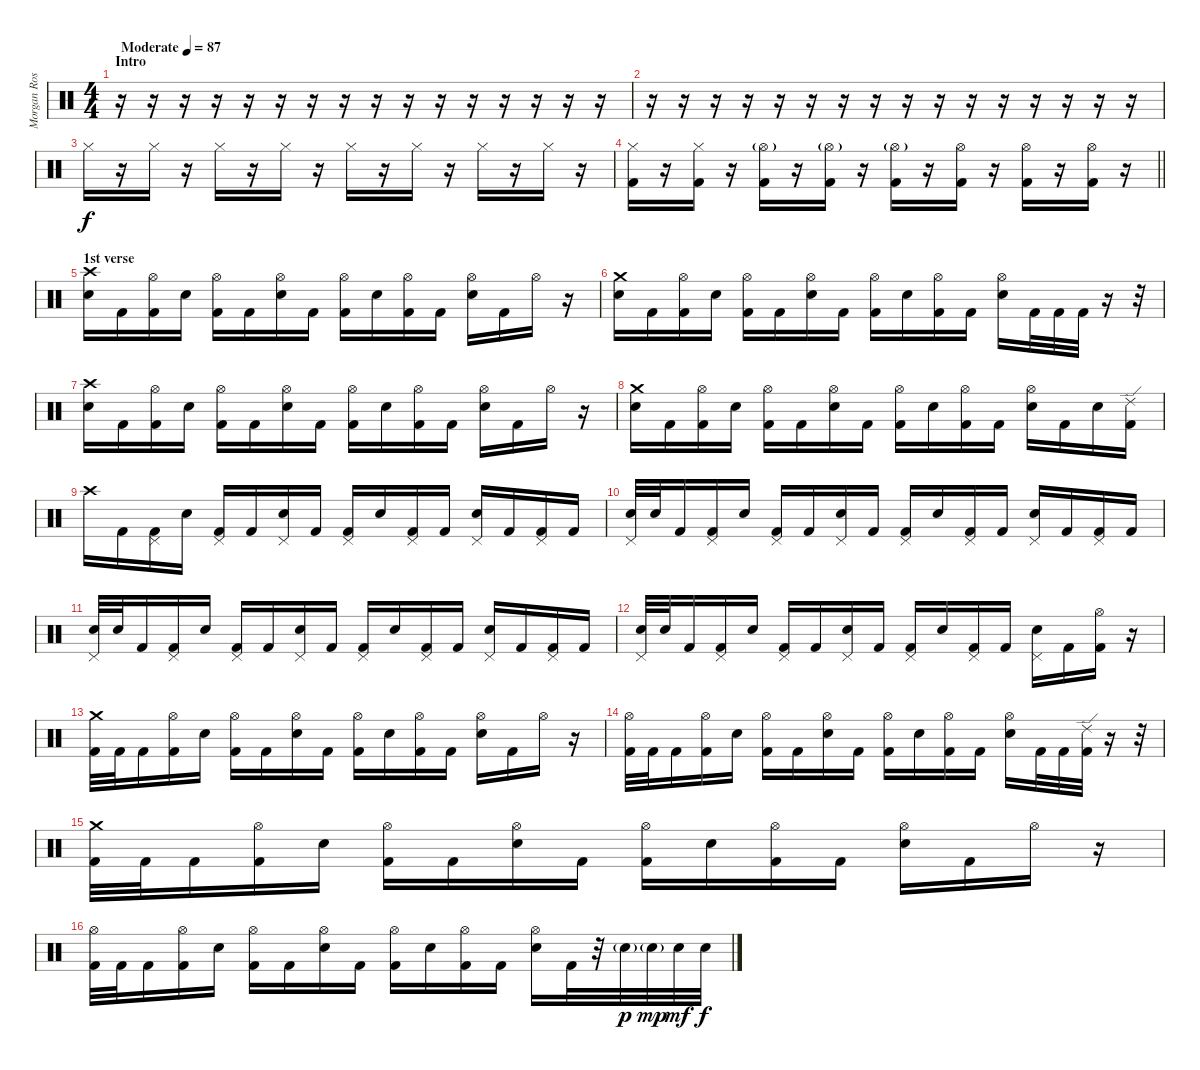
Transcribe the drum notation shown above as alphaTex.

\track ("Morgan Rose" "Morgan Ros") {instrument percussion}
\staff {score}
\articulation defaults
\ts (4 4)
\section ("" "Intro")
\tempo (87 "Moderate")
\clef neutral
\ks c
r.16{dy f} r.16 r.16 r.16 r.16 r.16 r.16 r.16 r.16 r.16 r.16 r.16 r.16 r.16 r.16 r.16 |
r.16 r.16 r.16 r.16 r.16 r.16 r.16 r.16 r.16 r.16 r.16 r.16 r.16 r.16 r.16 r.16 |
"Hi-Hat (closed)".16 r.16 "Hi-Hat (closed)".16 r.16 "Hi-Hat (closed)".16 r.16 "Hi-Hat (closed)".16 r.16 "Hi-Hat (closed)".16 r.16 "Hi-Hat (closed)".16 r.16 "Hi-Hat (closed)".16 r.16 "Hi-Hat (closed)".16 r.16 |
\barLineRight lightlight
("Hi-Hat (closed)" "Kick (hit) 2").16 r.16 ("Hi-Hat (closed)" "Kick (hit) 2").16 r.16 ("Hi-Hat (open)"{g} "Kick (hit) 2").16 r.16 ("Hi-Hat (open)"{g} "Kick (hit) 2").16 r.16 ("Hi-Hat (open)"{g} "Kick (hit) 2").16 r.16 ("Hi-Hat (open)" "Kick (hit) 2").16 r.16 ("Hi-Hat (open)" "Kick (hit) 2").16 r.16 ("Hi-Hat (open)" "Kick (hit) 2").16 r.16 |
\section ("" "1st verse")
("Crash high (hit)" "Snare (hit) 2").16 "Kick (hit) 2".16 ("Hi-Hat (open)" "Kick (hit) 2").16 "Snare (hit) 2".16 ("Hi-Hat (open)" "Kick (hit) 2").16 "Kick (hit) 2".16 ("Hi-Hat (open)" "Snare (hit) 2").16 "Kick (hit) 2".16 ("Hi-Hat (open)" "Kick (hit) 2").16 "Snare (hit) 2".16 ("Hi-Hat (open)" "Kick (hit) 2").16 "Kick (hit) 2".16 ("Hi-Hat (open)" "Snare (hit) 2").16 "Kick (hit) 2".16 "Hi-Hat (open)".16 r.16 |
("Crash medium (hit)" "Snare (hit) 2").16 "Kick (hit) 2".16 ("Hi-Hat (open)" "Kick (hit) 2").16 "Snare (hit) 2".16 ("Hi-Hat (open)" "Kick (hit) 2").16 "Kick (hit) 2".16 ("Hi-Hat (open)" "Snare (hit) 2").16 "Kick (hit) 2".16 ("Hi-Hat (open)" "Kick (hit) 2").16 "Snare (hit) 2".16 ("Hi-Hat (open)" "Kick (hit) 2").16 "Kick (hit) 2".16 ("Hi-Hat (open)" "Snare (hit) 2").16 "Kick (hit) 2".32 "Kick (hit) 2".32 "Kick (hit) 2".32 r.16 r.32 |
("Crash high (hit)" "Snare (hit) 2").16 "Kick (hit) 2".16 ("Hi-Hat (open)" "Kick (hit) 2").16 "Snare (hit) 2".16 ("Hi-Hat (open)" "Kick (hit) 2").16 "Kick (hit) 2".16 ("Hi-Hat (open)" "Snare (hit) 2").16 "Kick (hit) 2".16 ("Hi-Hat (open)" "Kick (hit) 2").16 "Snare (hit) 2".16 ("Hi-Hat (open)" "Kick (hit) 2").16 "Kick (hit) 2".16 ("Hi-Hat (open)" "Snare (hit) 2").16 "Kick (hit) 2".16 "Hi-Hat (open)".16 r.16 |
("Crash medium (hit)" "Snare (hit) 2").16 "Kick (hit) 2".16 ("Hi-Hat (open)" "Kick (hit) 2").16 "Snare (hit) 2".16 ("Hi-Hat (open)" "Kick (hit) 2").16 "Kick (hit) 2".16 ("Hi-Hat (open)" "Snare (hit) 2").16 "Kick (hit) 2".16 ("Hi-Hat (open)" "Kick (hit) 2").16 "Snare (hit) 2".16 ("Hi-Hat (open)" "Kick (hit) 2").16 "Kick (hit) 2".16 ("Hi-Hat (open)" "Snare (hit) 2").16 "Kick (hit) 2".16 "Snare (hit) 2".16 ("Ride (edge) 2" "Kick (hit) 2").16 |
"Crash high (hit)".16 "Kick (hit) 2".16 ("Pedal Hi-Hat (hit)" "Kick (hit) 2").16 "Snare (hit) 2".16 ("Pedal Hi-Hat (hit)" "Kick (hit) 2").16 "Kick (hit) 2".16 ("Pedal Hi-Hat (hit)" "Snare (hit) 2").16 "Kick (hit) 2".16 ("Pedal Hi-Hat (hit)" "Kick (hit) 2").16 "Snare (hit) 2".16 ("Pedal Hi-Hat (hit)" "Kick (hit) 2").16 "Kick (hit) 2".16 ("Pedal Hi-Hat (hit)" "Snare (hit) 2").16 "Kick (hit) 2".16 ("Pedal Hi-Hat (hit)" "Kick (hit) 2").16 "Kick (hit) 2".16 |
("Pedal Hi-Hat (hit)" "Snare (hit) 2").32 "Snare (hit) 2".32 "Kick (hit) 2".16 ("Pedal Hi-Hat (hit)" "Kick (hit) 2").16 "Snare (hit) 2".16 ("Pedal Hi-Hat (hit)" "Kick (hit) 2").16 "Kick (hit) 2".16 ("Pedal Hi-Hat (hit)" "Snare (hit) 2").16 "Kick (hit) 2".16 ("Pedal Hi-Hat (hit)" "Kick (hit) 2").16 "Snare (hit) 2".16 ("Pedal Hi-Hat (hit)" "Kick (hit) 2").16 "Kick (hit) 2".16 ("Pedal Hi-Hat (hit)" "Snare (hit) 2").16 "Kick (hit) 2".16 ("Pedal Hi-Hat (hit)" "Kick (hit) 2").16 "Kick (hit) 2".16 |
("Pedal Hi-Hat (hit)" "Snare (hit) 2").32 "Snare (hit) 2".32 "Kick (hit) 2".16 ("Pedal Hi-Hat (hit)" "Kick (hit) 2").16 "Snare (hit) 2".16 ("Pedal Hi-Hat (hit)" "Kick (hit) 2").16 "Kick (hit) 2".16 ("Pedal Hi-Hat (hit)" "Snare (hit) 2").16 "Kick (hit) 2".16 ("Pedal Hi-Hat (hit)" "Kick (hit) 2").16 "Snare (hit) 2".16 ("Pedal Hi-Hat (hit)" "Kick (hit) 2").16 "Kick (hit) 2".16 ("Pedal Hi-Hat (hit)" "Snare (hit) 2").16 "Kick (hit) 2".16 ("Pedal Hi-Hat (hit)" "Kick (hit) 2").16 "Kick (hit) 2".16 |
("Pedal Hi-Hat (hit)" "Snare (hit) 2").32 "Snare (hit) 2".32 "Kick (hit) 2".16 ("Pedal Hi-Hat (hit)" "Kick (hit) 2").16 "Snare (hit) 2".16 ("Pedal Hi-Hat (hit)" "Kick (hit) 2").16 "Kick (hit) 2".16 ("Pedal Hi-Hat (hit)" "Snare (hit) 2").16 "Kick (hit) 2".16 ("Pedal Hi-Hat (hit)" "Kick (hit) 2").16 "Snare (hit) 2".16 ("Pedal Hi-Hat (hit)" "Kick (hit) 2").16 "Kick (hit) 2".16 ("Pedal Hi-Hat (hit)" "Snare (hit) 2").16 "Kick (hit) 2".16 ("Hi-Hat (open)" "Kick (hit) 2").16 r.16 |
("Crash medium (hit)" "Kick (hit) 2").32 "Kick (hit) 2".32 "Kick (hit) 2".16 ("Hi-Hat (open)" "Kick (hit) 2").16 "Snare (hit) 2".16 ("Hi-Hat (open)" "Kick (hit) 2").16 "Kick (hit) 2".16 ("Hi-Hat (open)" "Snare (hit) 2").16 "Kick (hit) 2".16 ("Hi-Hat (open)" "Kick (hit) 2").16 "Snare (hit) 2".16 ("Hi-Hat (open)" "Kick (hit) 2").16 "Kick (hit) 2".16 ("Hi-Hat (open)" "Snare (hit) 2").16 "Kick (hit) 2".16 "Hi-Hat (open)".16 r.16 |
("Hi-Hat (open)" "Kick (hit) 2").32 "Kick (hit) 2".32 "Kick (hit) 2".16 ("Hi-Hat (open)" "Kick (hit) 2").16 "Snare (hit) 2".16 ("Hi-Hat (open)" "Kick (hit) 2").16 "Kick (hit) 2".16 ("Hi-Hat (open)" "Snare (hit) 2").16 "Kick (hit) 2".16 ("Hi-Hat (open)" "Kick (hit) 2").16 "Snare (hit) 2".16 ("Hi-Hat (open)" "Kick (hit) 2").16 "Kick (hit) 2".16 ("Hi-Hat (open)" "Snare (hit) 2").16 "Kick (hit) 2".32 "Kick (hit) 2".32 ("Ride (edge) 2" "Kick (hit) 2").32 r.16 r.32 |
("Crash medium (hit)" "Kick (hit) 2").32 "Kick (hit) 2".32 "Kick (hit) 2".16 ("Hi-Hat (open)" "Kick (hit) 2").16 "Snare (hit) 2".16 ("Hi-Hat (open)" "Kick (hit) 2").16 "Kick (hit) 2".16 ("Hi-Hat (open)" "Snare (hit) 2").16 "Kick (hit) 2".16 ("Hi-Hat (open)" "Kick (hit) 2").16 "Snare (hit) 2".16 ("Hi-Hat (open)" "Kick (hit) 2").16 "Kick (hit) 2".16 ("Hi-Hat (open)" "Snare (hit) 2").16 "Kick (hit) 2".16 "Hi-Hat (open)".16 r.16 |
("Hi-Hat (open)" "Kick (hit) 2").32 "Kick (hit) 2".32 "Kick (hit) 2".16 ("Hi-Hat (open)" "Kick (hit) 2").16 "Snare (hit) 2".16 ("Hi-Hat (open)" "Kick (hit) 2").16 "Kick (hit) 2".16 ("Hi-Hat (open)" "Snare (hit) 2").16 "Kick (hit) 2".16 ("Hi-Hat (open)" "Kick (hit) 2").16 "Snare (hit) 2".16 ("Hi-Hat (open)" "Kick (hit) 2").16 "Kick (hit) 2".16 ("Hi-Hat (open)" "Snare (hit) 2").16 "Kick (hit) 2".32 r.32 "Snare (hit) 2"{g}.32{dy p} "Snare (hit) 2"{g}.32{dy mp} "Snare (hit) 2".32{dy mf} "Snare (hit) 2".32{dy f}
